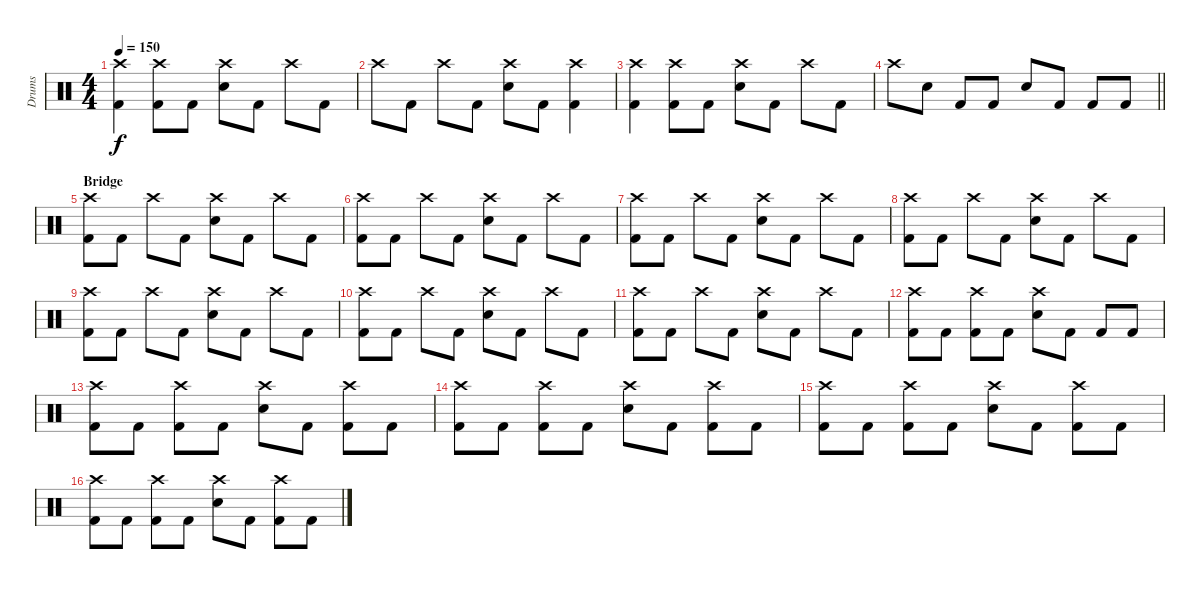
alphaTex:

\track ("Drums" "Drums") {instrument percussion}
\staff {score}
\articulation defaults
\ts (4 4)
\tempo 150
\clef neutral
\ks c
("Crash high (hit)" "Kick (hit) 2").4{dy f} ("Crash high (hit)" "Kick (hit) 2").8 "Kick (hit) 2".8 ("Crash high (hit)" "Snare (hit) 2").8 "Kick (hit) 2".8 "Crash high (hit)".8 "Kick (hit) 2".8 |
"Crash high (hit)".8 "Kick (hit) 2".8 "Crash high (hit)".8 "Kick (hit) 2".8 ("Crash high (hit)" "Snare (hit) 2").8 "Kick (hit) 2".8 ("Crash high (hit)" "Kick (hit) 2").4 |
("Crash high (hit)" "Kick (hit) 2").4 ("Crash high (hit)" "Kick (hit) 2").8 "Kick (hit) 2".8 ("Crash high (hit)" "Snare (hit) 2").8 "Kick (hit) 2".8 "Crash high (hit)".8 "Kick (hit) 2".8 |
\barLineRight lightlight "Crash high (hit)".8 "Snare (hit) 2".8 "Kick (hit) 2".8 "Kick (hit) 2".8 "Snare (hit) 2".8 "Kick (hit) 2".8 "Kick (hit) 2".8 "Kick (hit) 2".8
|
\section ("" "Bridge")
("Crash high (hit)" "Kick (hit) 2").8 "Kick (hit) 2".8 "Crash high (hit)".8 "Kick (hit) 2".8 ("Crash high (hit)" "Snare (hit) 2").8 "Kick (hit) 2".8 "Crash high (hit)".8 "Kick (hit) 2".8 |
("Crash high (hit)" "Kick (hit) 2").8 "Kick (hit) 2".8 "Crash high (hit)".8 "Kick (hit) 2".8 ("Crash high (hit)" "Snare (hit) 2").8 "Kick (hit) 2".8 "Crash high (hit)".8 "Kick (hit) 2".8 |
("Crash high (hit)" "Kick (hit) 2").8 "Kick (hit) 2".8 "Crash high (hit)".8 "Kick (hit) 2".8 ("Crash high (hit)" "Snare (hit) 2").8 "Kick (hit) 2".8 "Crash high (hit)".8 "Kick (hit) 2".8 |
("Crash high (hit)" "Kick (hit) 2").8 "Kick (hit) 2".8 "Crash high (hit)".8 "Kick (hit) 2".8 ("Crash high (hit)" "Snare (hit) 2").8 "Kick (hit) 2".8 "Crash high (hit)".8 "Kick (hit) 2".8 |
("Crash high (hit)" "Kick (hit) 2").8 "Kick (hit) 2".8 "Crash high (hit)".8 "Kick (hit) 2".8 ("Crash high (hit)" "Snare (hit) 2").8 "Kick (hit) 2".8 "Crash high (hit)".8 "Kick (hit) 2".8 |
("Crash high (hit)" "Kick (hit) 2").8 "Kick (hit) 2".8 "Crash high (hit)".8 "Kick (hit) 2".8 ("Crash high (hit)" "Snare (hit) 2").8 "Kick (hit) 2".8 "Crash high (hit)".8 "Kick (hit) 2".8 |
("Crash high (hit)" "Kick (hit) 2").8 "Kick (hit) 2".8 "Crash high (hit)".8 "Kick (hit) 2".8 ("Crash high (hit)" "Snare (hit) 2").8 "Kick (hit) 2".8 "Crash high (hit)".8 "Kick (hit) 2".8 |
("Crash high (hit)" "Kick (hit) 2").8 "Kick (hit) 2".8 ("Crash high (hit)" "Kick (hit) 2").8 "Kick (hit) 2".8 ("Crash high (hit)" "Snare (hit) 2").8 "Kick (hit) 2".8 "Kick (hit) 2".8 "Kick (hit) 2".8 |
("Crash high (hit)" "Kick (hit) 2").8 "Kick (hit) 2".8 ("Crash high (hit)" "Kick (hit) 2").8 "Kick (hit) 2".8 ("Crash high (hit)" "Snare (hit) 2").8 "Kick (hit) 2".8 ("Crash high (hit)" "Kick (hit) 2").8 "Kick (hit) 2".8 |
("Crash high (hit)" "Kick (hit) 2").8 "Kick (hit) 2".8 ("Crash high (hit)" "Kick (hit) 2").8 "Kick (hit) 2".8 ("Crash high (hit)" "Snare (hit) 2").8 "Kick (hit) 2".8 ("Crash high (hit)" "Kick (hit) 2").8 "Kick (hit) 2".8 |
("Crash high (hit)" "Kick (hit) 2").8 "Kick (hit) 2".8 ("Crash high (hit)" "Kick (hit) 2").8 "Kick (hit) 2".8 ("Crash high (hit)" "Snare (hit) 2").8 "Kick (hit) 2".8 ("Crash high (hit)" "Kick (hit) 2").8 "Kick (hit) 2".8 |
("Crash high (hit)" "Kick (hit) 2").8 "Kick (hit) 2".8 ("Crash high (hit)" "Kick (hit) 2").8 "Kick (hit) 2".8 ("Crash high (hit)" "Snare (hit) 2").8 "Kick (hit) 2".8 ("Crash high (hit)" "Kick (hit) 2").8 "Kick (hit) 2".8
